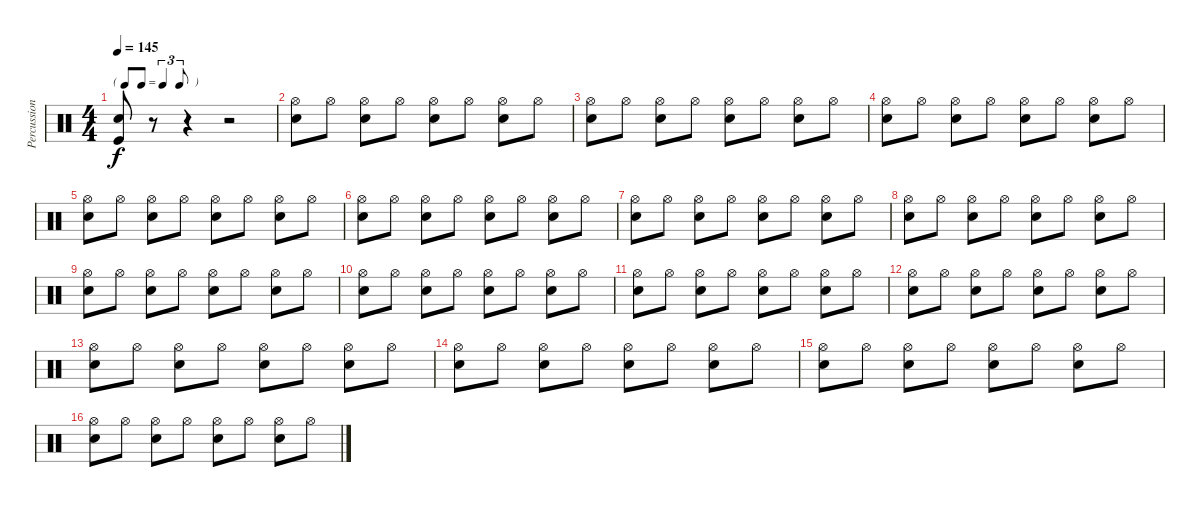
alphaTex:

\track ("Percussion" "Percussion") {instrument percussion}
\staff {score}
\articulation defaults
\ts (4 4)
\tf triplet8th
\tempo 145
\clef neutral
\ks c
("Snare (hit) 2" "Kick (hit)").8{dy f} r.8 r.4 r.2 |
("Hi-Hat (open)" "Snare (hit) 2").8 "Hi-Hat (open)".8 ("Hi-Hat (open)" "Snare (hit) 2").8 "Hi-Hat (open)".8 ("Hi-Hat (open)" "Snare (hit) 2").8 "Hi-Hat (open)".8 ("Hi-Hat (open)" "Snare (hit) 2").8 "Hi-Hat (open)".8 |
("Hi-Hat (open)" "Snare (hit) 2").8 "Hi-Hat (open)".8 ("Hi-Hat (open)" "Snare (hit) 2").8 "Hi-Hat (open)".8 ("Hi-Hat (open)" "Snare (hit) 2").8 "Hi-Hat (open)".8 ("Hi-Hat (open)" "Snare (hit) 2").8 "Hi-Hat (open)".8 |
("Hi-Hat (open)" "Snare (hit) 2").8 "Hi-Hat (open)".8 ("Hi-Hat (open)" "Snare (hit) 2").8 "Hi-Hat (open)".8 ("Hi-Hat (open)" "Snare (hit) 2").8 "Hi-Hat (open)".8 ("Hi-Hat (open)" "Snare (hit) 2").8 "Hi-Hat (open)".8 |
("Hi-Hat (open)" "Snare (hit) 2").8 "Hi-Hat (open)".8 ("Hi-Hat (open)" "Snare (hit) 2").8 "Hi-Hat (open)".8 ("Hi-Hat (open)" "Snare (hit) 2").8 "Hi-Hat (open)".8 ("Hi-Hat (open)" "Snare (hit) 2").8 "Hi-Hat (open)".8 |
("Hi-Hat (open)" "Snare (hit) 2").8 "Hi-Hat (open)".8 ("Hi-Hat (open)" "Snare (hit) 2").8 "Hi-Hat (open)".8 ("Hi-Hat (open)" "Snare (hit) 2").8 "Hi-Hat (open)".8 ("Hi-Hat (open)" "Snare (hit) 2").8 "Hi-Hat (open)".8 |
("Hi-Hat (open)" "Snare (hit) 2").8 "Hi-Hat (open)".8 ("Hi-Hat (open)" "Snare (hit) 2").8 "Hi-Hat (open)".8 ("Hi-Hat (open)" "Snare (hit) 2").8 "Hi-Hat (open)".8 ("Hi-Hat (open)" "Snare (hit) 2").8 "Hi-Hat (open)".8 |
("Hi-Hat (open)" "Snare (hit) 2").8 "Hi-Hat (open)".8 ("Hi-Hat (open)" "Snare (hit) 2").8 "Hi-Hat (open)".8 ("Hi-Hat (open)" "Snare (hit) 2").8 "Hi-Hat (open)".8 ("Hi-Hat (open)" "Snare (hit) 2").8 "Hi-Hat (open)".8 |
("Hi-Hat (open)" "Snare (hit) 2").8 "Hi-Hat (open)".8 ("Hi-Hat (open)" "Snare (hit) 2").8 "Hi-Hat (open)".8 ("Hi-Hat (open)" "Snare (hit) 2").8 "Hi-Hat (open)".8 ("Hi-Hat (open)" "Snare (hit) 2").8 "Hi-Hat (open)".8 |
("Hi-Hat (open)" "Snare (hit) 2").8 "Hi-Hat (open)".8 ("Hi-Hat (open)" "Snare (hit) 2").8 "Hi-Hat (open)".8 ("Hi-Hat (open)" "Snare (hit) 2").8 "Hi-Hat (open)".8 ("Hi-Hat (open)" "Snare (hit) 2").8 "Hi-Hat (open)".8 |
("Hi-Hat (open)" "Snare (hit) 2").8 "Hi-Hat (open)".8 ("Hi-Hat (open)" "Snare (hit) 2").8 "Hi-Hat (open)".8 ("Hi-Hat (open)" "Snare (hit) 2").8 "Hi-Hat (open)".8 ("Hi-Hat (open)" "Snare (hit) 2").8 "Hi-Hat (open)".8 |
("Hi-Hat (open)" "Snare (hit) 2").8 "Hi-Hat (open)".8 ("Hi-Hat (open)" "Snare (hit) 2").8 "Hi-Hat (open)".8 ("Hi-Hat (open)" "Snare (hit) 2").8 "Hi-Hat (open)".8 ("Hi-Hat (open)" "Snare (hit) 2").8 "Hi-Hat (open)".8 |
("Hi-Hat (open)" "Snare (hit) 2").8 "Hi-Hat (open)".8 ("Hi-Hat (open)" "Snare (hit) 2").8 "Hi-Hat (open)".8 ("Hi-Hat (open)" "Snare (hit) 2").8 "Hi-Hat (open)".8 ("Hi-Hat (open)" "Snare (hit) 2").8 "Hi-Hat (open)".8 |
("Hi-Hat (open)" "Snare (hit) 2").8 "Hi-Hat (open)".8 ("Hi-Hat (open)" "Snare (hit) 2").8 "Hi-Hat (open)".8 ("Hi-Hat (open)" "Snare (hit) 2").8 "Hi-Hat (open)".8 ("Hi-Hat (open)" "Snare (hit) 2").8 "Hi-Hat (open)".8 |
("Hi-Hat (open)" "Snare (hit) 2").8 "Hi-Hat (open)".8 ("Hi-Hat (open)" "Snare (hit) 2").8 "Hi-Hat (open)".8 ("Hi-Hat (open)" "Snare (hit) 2").8 "Hi-Hat (open)".8 ("Hi-Hat (open)" "Snare (hit) 2").8 "Hi-Hat (open)".8 |
("Hi-Hat (open)" "Snare (hit) 2").8 "Hi-Hat (open)".8 ("Hi-Hat (open)" "Snare (hit) 2").8 "Hi-Hat (open)".8 ("Hi-Hat (open)" "Snare (hit) 2").8 "Hi-Hat (open)".8 ("Hi-Hat (open)" "Snare (hit) 2").8 "Hi-Hat (open)".8
